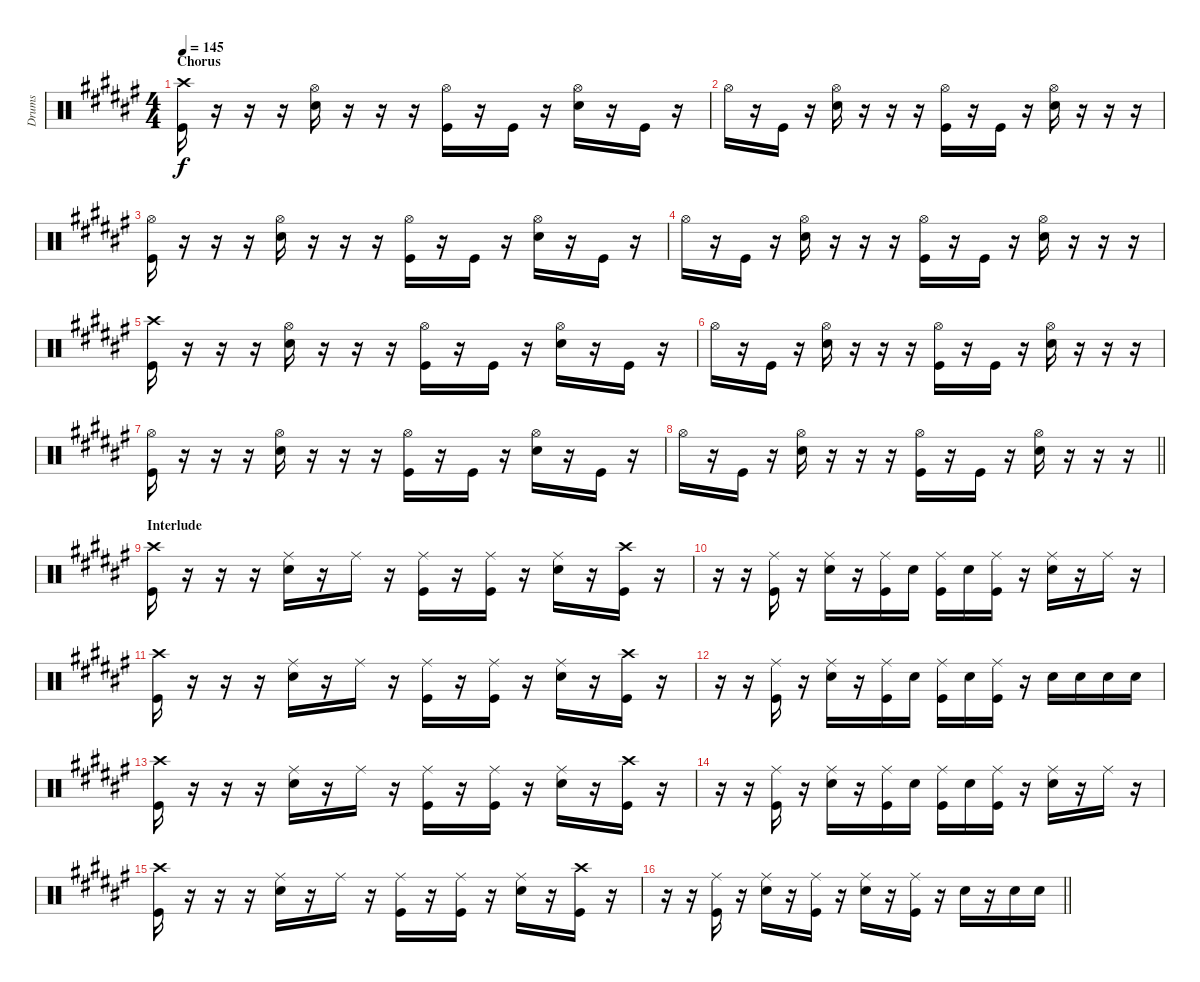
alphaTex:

\track ("Drums" "Drums") {instrument percussion}
\staff {score}
\articulation defaults
\ts (4 4)
\section ("" "Chorus")
\tempo 145
\clef neutral
\ks f#
("Kick (hit)" "Crash high (hit)").16{dy f} r.16 r.16 r.16 ("Hi-Hat (open)" "Snare (hit) 2").16 r.16 r.16 r.16 ("Hi-Hat (open)" "Kick (hit)").16 r.16 "Kick (hit)".16 r.16 ("Hi-Hat (open)" "Snare (hit) 2").16 r.16 "Kick (hit)".16 r.16 |
"Hi-Hat (open)".16 r.16 "Kick (hit)".16 r.16 ("Hi-Hat (open)" "Snare (hit) 2").16 r.16 r.16 r.16 ("Hi-Hat (open)" "Kick (hit)").16 r.16 "Kick (hit)".16 r.16 ("Hi-Hat (open)" "Snare (hit) 2").16 r.16 r.16 r.16 |
("Hi-Hat (open)" "Kick (hit)").16 r.16 r.16 r.16 ("Hi-Hat (open)" "Snare (hit) 2").16 r.16 r.16 r.16 ("Hi-Hat (open)" "Kick (hit)").16 r.16 "Kick (hit)".16 r.16 ("Hi-Hat (open)" "Snare (hit) 2").16 r.16 "Kick (hit)".16 r.16 |
"Hi-Hat (open)".16 r.16 "Kick (hit)".16 r.16 ("Hi-Hat (open)" "Snare (hit) 2").16 r.16 r.16 r.16 ("Hi-Hat (open)" "Kick (hit)").16 r.16 "Kick (hit)".16 r.16 ("Hi-Hat (open)" "Snare (hit) 2").16 r.16 r.16 r.16 |
("Kick (hit)" "Crash high (hit)").16 r.16 r.16 r.16 ("Hi-Hat (open)" "Snare (hit) 2").16 r.16 r.16 r.16 ("Hi-Hat (open)" "Kick (hit)").16 r.16 "Kick (hit)".16 r.16 ("Hi-Hat (open)" "Snare (hit) 2").16 r.16 "Kick (hit)".16 r.16 |
"Hi-Hat (open)".16 r.16 "Kick (hit)".16 r.16 ("Hi-Hat (open)" "Snare (hit) 2").16 r.16 r.16 r.16 ("Hi-Hat (open)" "Kick (hit)").16 r.16 "Kick (hit)".16 r.16 ("Hi-Hat (open)" "Snare (hit) 2").16 r.16 r.16 r.16 |
("Hi-Hat (open)" "Kick (hit)").16 r.16 r.16 r.16 ("Hi-Hat (open)" "Snare (hit) 2").16 r.16 r.16 r.16 ("Hi-Hat (open)" "Kick (hit)").16 r.16 "Kick (hit)".16 r.16 ("Hi-Hat (open)" "Snare (hit) 2").16 r.16 "Kick (hit)".16 r.16 |
\barLineRight lightlight "Hi-Hat (open)".16
r.16 "Kick (hit)".16 r.16 ("Hi-Hat (open)" "Snare (hit) 2").16 r.16 r.16 r.16 ("Hi-Hat (open)" "Kick (hit)").16 r.16 "Kick (hit)".16 r.16 ("Hi-Hat (open)" "Snare (hit) 2").16 r.16 r.16 r.16 |
\section ("" "Interlude")
("Kick (hit)" "Crash high (hit)").16 r.16 r.16 r.16 ("Snare (hit) 2" "Ride (middle)").16 r.16 "Ride (middle)".16 r.16 ("Kick (hit)" "Ride (middle)").16 r.16 ("Kick (hit)" "Ride (middle)").16 r.16 ("Snare (hit) 2" "Ride (middle)").16 r.16 ("Kick (hit)" "Crash high (hit)").16 r.16 |
r.16 r.16 ("Kick (hit)" "Ride (middle)").16 r.16 ("Snare (hit) 2" "Ride (middle)").16 r.16 ("Kick (hit)" "Ride (middle)").16 "Snare (hit) 2".16 ("Kick (hit)" "Ride (middle)").16 "Snare (hit) 2".16 ("Kick (hit)" "Ride (middle)").16 r.16 ("Snare (hit) 2" "Ride (middle)").16 r.16 "Ride (middle)".16 r.16 |
("Kick (hit)" "Crash high (hit)").16 r.16 r.16 r.16 ("Snare (hit) 2" "Ride (middle)").16 r.16 "Ride (middle)".16 r.16 ("Kick (hit)" "Ride (middle)").16 r.16 ("Kick (hit)" "Ride (middle)").16 r.16 ("Snare (hit) 2" "Ride (middle)").16 r.16 ("Kick (hit)" "Crash high (hit)").16 r.16 |
r.16 r.16 ("Kick (hit)" "Ride (middle)").16 r.16 ("Snare (hit) 2" "Ride (middle)").16 r.16 ("Kick (hit)" "Ride (middle)").16 "Snare (hit) 2".16 ("Kick (hit)" "Ride (middle)").16 "Snare (hit) 2".16 ("Kick (hit)" "Ride (middle)").16 r.16 "Snare (hit) 2".16 "Snare (hit) 2".16 "Snare (hit) 2".16 "Snare (hit) 2".16 |
("Kick (hit)" "Crash high (hit)").16 r.16 r.16 r.16 ("Snare (hit) 2" "Ride (middle)").16 r.16 "Ride (middle)".16 r.16 ("Kick (hit)" "Ride (middle)").16 r.16 ("Kick (hit)" "Ride (middle)").16 r.16 ("Snare (hit) 2" "Ride (middle)").16 r.16 ("Kick (hit)" "Crash high (hit)").16 r.16 |
r.16 r.16 ("Kick (hit)" "Ride (middle)").16 r.16 ("Snare (hit) 2" "Ride (middle)").16 r.16 ("Kick (hit)" "Ride (middle)").16 "Snare (hit) 2".16 ("Kick (hit)" "Ride (middle)").16 "Snare (hit) 2".16 ("Kick (hit)" "Ride (middle)").16 r.16 ("Snare (hit) 2" "Ride (middle)").16 r.16 "Ride (middle)".16 r.16 |
("Kick (hit)" "Crash high (hit)").16 r.16 r.16 r.16 ("Snare (hit) 2" "Ride (middle)").16 r.16 "Ride (middle)".16 r.16 ("Kick (hit)" "Ride (middle)").16 r.16 ("Kick (hit)" "Ride (middle)").16 r.16 ("Snare (hit) 2" "Ride (middle)").16 r.16 ("Kick (hit)" "Crash high (hit)").16 r.16 |
\barLineRight lightlight
r.16 r.16 ("Kick (hit)" "Ride (middle)").16 r.16 ("Snare (hit) 2" "Ride (middle)").16 r.16 ("Kick (hit)" "Ride (middle)").16 r.16 ("Snare (hit) 2" "Ride (middle)").16 r.16 ("Kick (hit)" "Ride (middle)").16 r.16 "Snare (hit) 2".16 r.16 "Snare (hit) 2".16 "Snare (hit) 2".16
